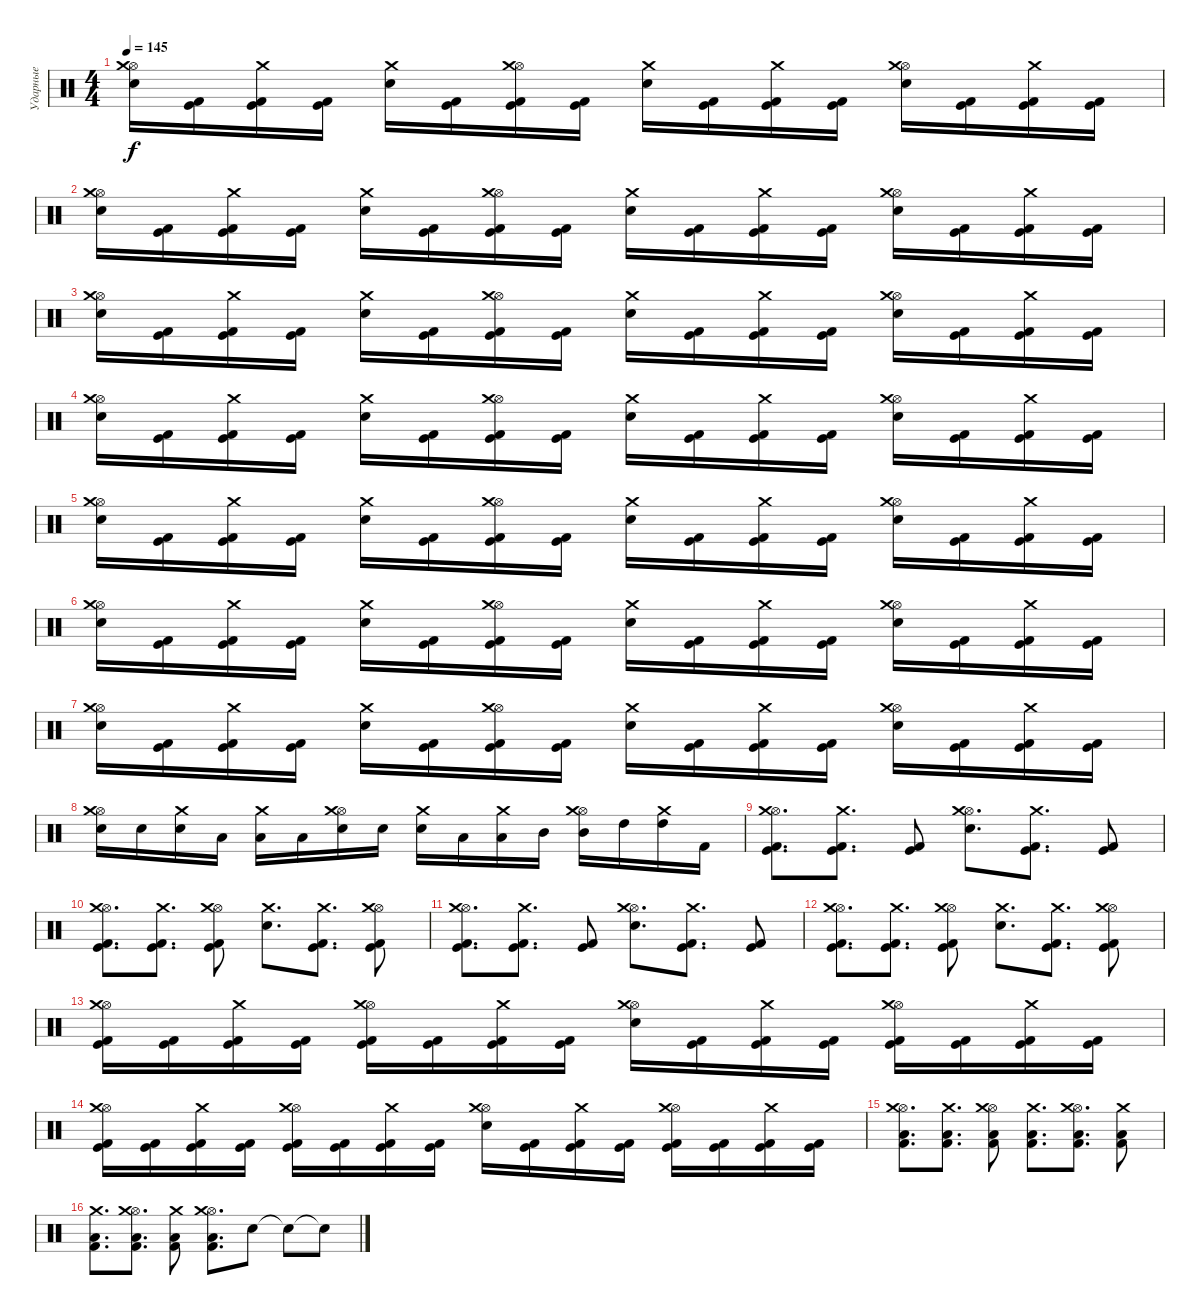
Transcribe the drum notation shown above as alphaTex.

\track ("Ударные" "Ударные") {instrument percussion}
\staff {score}
\articulation defaults
\ts (4 4)
\tempo 145
\clef neutral
\ks c
("Hi-Hat (open)" "Crash medium (hit)" "Electric Snare (hit)").16{dy f} ("Kick (hit) 2" "Kick (hit)").16 ("Crash medium (hit)" "Kick (hit) 2" "Kick (hit)").16 ("Kick (hit) 2" "Kick (hit)").16 ("Crash medium (hit)" "Electric Snare (hit)").16 ("Kick (hit) 2" "Kick (hit)").16 ("Hi-Hat (open)" "Crash medium (hit)" "Kick (hit) 2" "Kick (hit)").16 ("Kick (hit) 2" "Kick (hit)").16 ("Crash medium (hit)" "Electric Snare (hit)").16 ("Kick (hit) 2" "Kick (hit)").16 ("Crash medium (hit)" "Kick (hit) 2" "Kick (hit)").16 ("Kick (hit) 2" "Kick (hit)").16 ("Hi-Hat (open)" "Crash medium (hit)" "Electric Snare (hit)").16 ("Kick (hit) 2" "Kick (hit)").16 ("Crash medium (hit)" "Kick (hit) 2" "Kick (hit)").16 ("Kick (hit) 2" "Kick (hit)").16 |
("Hi-Hat (open)" "Crash medium (hit)" "Electric Snare (hit)").16 ("Kick (hit) 2" "Kick (hit)").16 ("Crash medium (hit)" "Kick (hit) 2" "Kick (hit)").16 ("Kick (hit) 2" "Kick (hit)").16 ("Crash medium (hit)" "Electric Snare (hit)").16 ("Kick (hit) 2" "Kick (hit)").16 ("Hi-Hat (open)" "Crash medium (hit)" "Kick (hit) 2" "Kick (hit)").16 ("Kick (hit) 2" "Kick (hit)").16 ("Crash medium (hit)" "Electric Snare (hit)").16 ("Kick (hit) 2" "Kick (hit)").16 ("Crash medium (hit)" "Kick (hit) 2" "Kick (hit)").16 ("Kick (hit) 2" "Kick (hit)").16 ("Hi-Hat (open)" "Crash medium (hit)" "Electric Snare (hit)").16 ("Kick (hit) 2" "Kick (hit)").16 ("Crash medium (hit)" "Kick (hit) 2" "Kick (hit)").16 ("Kick (hit) 2" "Kick (hit)").16 |
("Hi-Hat (open)" "Crash medium (hit)" "Electric Snare (hit)").16 ("Kick (hit) 2" "Kick (hit)").16 ("Crash medium (hit)" "Kick (hit) 2" "Kick (hit)").16 ("Kick (hit) 2" "Kick (hit)").16 ("Crash medium (hit)" "Electric Snare (hit)").16 ("Kick (hit) 2" "Kick (hit)").16 ("Hi-Hat (open)" "Crash medium (hit)" "Kick (hit) 2" "Kick (hit)").16 ("Kick (hit) 2" "Kick (hit)").16 ("Crash medium (hit)" "Electric Snare (hit)").16 ("Kick (hit) 2" "Kick (hit)").16 ("Crash medium (hit)" "Kick (hit) 2" "Kick (hit)").16 ("Kick (hit) 2" "Kick (hit)").16 ("Hi-Hat (open)" "Crash medium (hit)" "Electric Snare (hit)").16 ("Kick (hit) 2" "Kick (hit)").16 ("Crash medium (hit)" "Kick (hit) 2" "Kick (hit)").16 ("Kick (hit) 2" "Kick (hit)").16 |
("Hi-Hat (open)" "Crash medium (hit)" "Electric Snare (hit)").16 ("Kick (hit) 2" "Kick (hit)").16 ("Crash medium (hit)" "Kick (hit) 2" "Kick (hit)").16 ("Kick (hit) 2" "Kick (hit)").16 ("Crash medium (hit)" "Electric Snare (hit)").16 ("Kick (hit) 2" "Kick (hit)").16 ("Hi-Hat (open)" "Crash medium (hit)" "Kick (hit) 2" "Kick (hit)").16 ("Kick (hit) 2" "Kick (hit)").16 ("Crash medium (hit)" "Electric Snare (hit)").16 ("Kick (hit) 2" "Kick (hit)").16 ("Crash medium (hit)" "Kick (hit) 2" "Kick (hit)").16 ("Kick (hit) 2" "Kick (hit)").16 ("Hi-Hat (open)" "Crash medium (hit)" "Electric Snare (hit)").16 ("Kick (hit) 2" "Kick (hit)").16 ("Crash medium (hit)" "Kick (hit) 2" "Kick (hit)").16 ("Kick (hit) 2" "Kick (hit)").16 |
("Hi-Hat (open)" "Crash medium (hit)" "Electric Snare (hit)").16 ("Kick (hit) 2" "Kick (hit)").16 ("Crash medium (hit)" "Kick (hit) 2" "Kick (hit)").16 ("Kick (hit) 2" "Kick (hit)").16 ("Crash medium (hit)" "Electric Snare (hit)").16 ("Kick (hit) 2" "Kick (hit)").16 ("Hi-Hat (open)" "Crash medium (hit)" "Kick (hit) 2" "Kick (hit)").16 ("Kick (hit) 2" "Kick (hit)").16 ("Crash medium (hit)" "Electric Snare (hit)").16 ("Kick (hit) 2" "Kick (hit)").16 ("Crash medium (hit)" "Kick (hit) 2" "Kick (hit)").16 ("Kick (hit) 2" "Kick (hit)").16 ("Hi-Hat (open)" "Crash medium (hit)" "Electric Snare (hit)").16 ("Kick (hit) 2" "Kick (hit)").16 ("Crash medium (hit)" "Kick (hit) 2" "Kick (hit)").16 ("Kick (hit) 2" "Kick (hit)").16 |
("Hi-Hat (open)" "Crash medium (hit)" "Electric Snare (hit)").16 ("Kick (hit) 2" "Kick (hit)").16 ("Crash medium (hit)" "Kick (hit) 2" "Kick (hit)").16 ("Kick (hit) 2" "Kick (hit)").16 ("Crash medium (hit)" "Electric Snare (hit)").16 ("Kick (hit) 2" "Kick (hit)").16 ("Hi-Hat (open)" "Crash medium (hit)" "Kick (hit) 2" "Kick (hit)").16 ("Kick (hit) 2" "Kick (hit)").16 ("Crash medium (hit)" "Electric Snare (hit)").16 ("Kick (hit) 2" "Kick (hit)").16 ("Crash medium (hit)" "Kick (hit) 2" "Kick (hit)").16 ("Kick (hit) 2" "Kick (hit)").16 ("Hi-Hat (open)" "Crash medium (hit)" "Electric Snare (hit)").16 ("Kick (hit) 2" "Kick (hit)").16 ("Crash medium (hit)" "Kick (hit) 2" "Kick (hit)").16 ("Kick (hit) 2" "Kick (hit)").16 |
("Hi-Hat (open)" "Crash medium (hit)" "Electric Snare (hit)").16 ("Kick (hit) 2" "Kick (hit)").16 ("Crash medium (hit)" "Kick (hit) 2" "Kick (hit)").16 ("Kick (hit) 2" "Kick (hit)").16 ("Crash medium (hit)" "Electric Snare (hit)").16 ("Kick (hit) 2" "Kick (hit)").16 ("Hi-Hat (open)" "Crash medium (hit)" "Kick (hit) 2" "Kick (hit)").16 ("Kick (hit) 2" "Kick (hit)").16 ("Crash medium (hit)" "Electric Snare (hit)").16 ("Kick (hit) 2" "Kick (hit)").16 ("Crash medium (hit)" "Kick (hit) 2" "Kick (hit)").16 ("Kick (hit) 2" "Kick (hit)").16 ("Hi-Hat (open)" "Crash medium (hit)" "Electric Snare (hit)").16 ("Kick (hit) 2" "Kick (hit)").16 ("Crash medium (hit)" "Kick (hit) 2" "Kick (hit)").16 ("Kick (hit) 2" "Kick (hit)").16 |
("Hi-Hat (open)" "Crash medium (hit)" "Electric Snare (hit)").16 "Electric Snare (hit)".16 ("Crash medium (hit)" "Electric Snare (hit)").16 "Low Tom (hit)".16 ("Crash medium (hit)" "Low Tom (hit)").16 "Low Tom (hit)".16 ("Hi-Hat (open)" "Crash medium (hit)" "Electric Snare (hit)").16 "Electric Snare (hit)".16 ("Crash medium (hit)" "Electric Snare (hit)").16 "Low Tom (hit)".16 ("Crash medium (hit)" "Low Tom (hit)").16 "Mid Tom (hit)".16 ("Hi-Hat (open)" "Crash medium (hit)" "Mid Tom (hit)").16 "High Tom (hit)".16 ("Crash medium (hit)" "High Tom (hit)").16 "Kick (hit) 2".16 |
("Hi-Hat (open)" "Crash medium (hit)" "Kick (hit) 2" "Kick (hit)").8{d} ("Crash medium (hit)" "Kick (hit) 2" "Kick (hit)").8{d} ("Kick (hit) 2" "Kick (hit)").8 ("Hi-Hat (open)" "Crash medium (hit)" "Electric Snare (hit)").8{d} ("Crash medium (hit)" "Kick (hit) 2" "Kick (hit)").8{d} ("Kick (hit) 2" "Kick (hit)").8 |
("Hi-Hat (open)" "Crash medium (hit)" "Kick (hit) 2" "Kick (hit)").8{d} ("Crash medium (hit)" "Kick (hit) 2" "Kick (hit)").8{d} ("Hi-Hat (open)" "Crash medium (hit)" "Kick (hit) 2" "Kick (hit)").8 ("Crash medium (hit)" "Electric Snare (hit)").8{d} ("Crash medium (hit)" "Kick (hit) 2" "Kick (hit)").8{d} ("Hi-Hat (open)" "Crash medium (hit)" "Kick (hit) 2" "Kick (hit)").8 |
("Hi-Hat (open)" "Crash medium (hit)" "Kick (hit) 2" "Kick (hit)").8{d} ("Crash medium (hit)" "Kick (hit) 2" "Kick (hit)").8{d} ("Kick (hit) 2" "Kick (hit)").8 ("Hi-Hat (open)" "Crash medium (hit)" "Electric Snare (hit)").8{d} ("Crash medium (hit)" "Kick (hit) 2" "Kick (hit)").8{d} ("Kick (hit) 2" "Kick (hit)").8 |
("Hi-Hat (open)" "Crash medium (hit)" "Kick (hit) 2" "Kick (hit)").8{d} ("Crash medium (hit)" "Kick (hit) 2" "Kick (hit)").8{d} ("Hi-Hat (open)" "Crash medium (hit)" "Kick (hit) 2" "Kick (hit)").8 ("Crash medium (hit)" "Electric Snare (hit)").8{d} ("Crash medium (hit)" "Kick (hit) 2" "Kick (hit)").8{d} ("Hi-Hat (open)" "Crash medium (hit)" "Kick (hit) 2" "Kick (hit)").8 |
("Hi-Hat (open)" "Crash medium (hit)" "Kick (hit) 2" "Kick (hit)").16 ("Kick (hit) 2" "Kick (hit)").16 ("Crash medium (hit)" "Kick (hit) 2" "Kick (hit)").16 ("Kick (hit) 2" "Kick (hit)").16 ("Hi-Hat (open)" "Crash medium (hit)" "Kick (hit) 2" "Kick (hit)").16 ("Kick (hit) 2" "Kick (hit)").16 ("Crash medium (hit)" "Kick (hit) 2" "Kick (hit)").16 ("Kick (hit) 2" "Kick (hit)").16 ("Hi-Hat (open)" "Crash medium (hit)" "Electric Snare (hit)").16 ("Kick (hit) 2" "Kick (hit)").16 ("Crash medium (hit)" "Kick (hit) 2" "Kick (hit)").16 ("Kick (hit) 2" "Kick (hit)").16 ("Hi-Hat (open)" "Crash medium (hit)" "Kick (hit) 2" "Kick (hit)").16 ("Kick (hit) 2" "Kick (hit)").16 ("Crash medium (hit)" "Kick (hit) 2" "Kick (hit)").16 ("Kick (hit) 2" "Kick (hit)").16 |
("Hi-Hat (open)" "Crash medium (hit)" "Kick (hit) 2" "Kick (hit)").16 ("Kick (hit) 2" "Kick (hit)").16 ("Crash medium (hit)" "Kick (hit) 2" "Kick (hit)").16 ("Kick (hit) 2" "Kick (hit)").16 ("Hi-Hat (open)" "Crash medium (hit)" "Kick (hit) 2" "Kick (hit)").16 ("Kick (hit) 2" "Kick (hit)").16 ("Crash medium (hit)" "Kick (hit) 2" "Kick (hit)").16 ("Kick (hit) 2" "Kick (hit)").16 ("Hi-Hat (open)" "Crash medium (hit)" "Electric Snare (hit)").16 ("Kick (hit) 2" "Kick (hit)").16 ("Crash medium (hit)" "Kick (hit) 2" "Kick (hit)").16 ("Kick (hit) 2" "Kick (hit)").16 ("Hi-Hat (open)" "Crash medium (hit)" "Kick (hit) 2" "Kick (hit)").16 ("Kick (hit) 2" "Kick (hit)").16 ("Crash medium (hit)" "Kick (hit) 2" "Kick (hit)").16 ("Kick (hit) 2" "Kick (hit)").16 |
("Hi-Hat (open)" "Crash medium (hit)" "Low Tom (hit)" "Kick (hit) 2").8{d} ("Crash medium (hit)" "Low Tom (hit)" "Kick (hit) 2").8{d} ("Hi-Hat (open)" "Crash medium (hit)" "Low Tom (hit)" "Kick (hit) 2").8 ("Crash medium (hit)" "Low Tom (hit)" "Kick (hit) 2").8{d} ("Hi-Hat (open)" "Crash medium (hit)" "Low Tom (hit)" "Kick (hit) 2").8{d} ("Crash medium (hit)" "Low Tom (hit)" "Kick (hit) 2").8 |
("Crash medium (hit)" "Low Tom (hit)" "Kick (hit) 2").8{d} ("Hi-Hat (open)" "Crash medium (hit)" "Low Tom (hit)" "Kick (hit) 2").8{d} ("Crash medium (hit)" "Low Tom (hit)" "Kick (hit) 2").8 ("Hi-Hat (open)" "Crash medium (hit)" "Low Tom (hit)" "Kick (hit) 2").8{d} "Electric Snare (hit)".8 "Snare (hit)"{t}.8 "Snare (hit)"{t}.8
